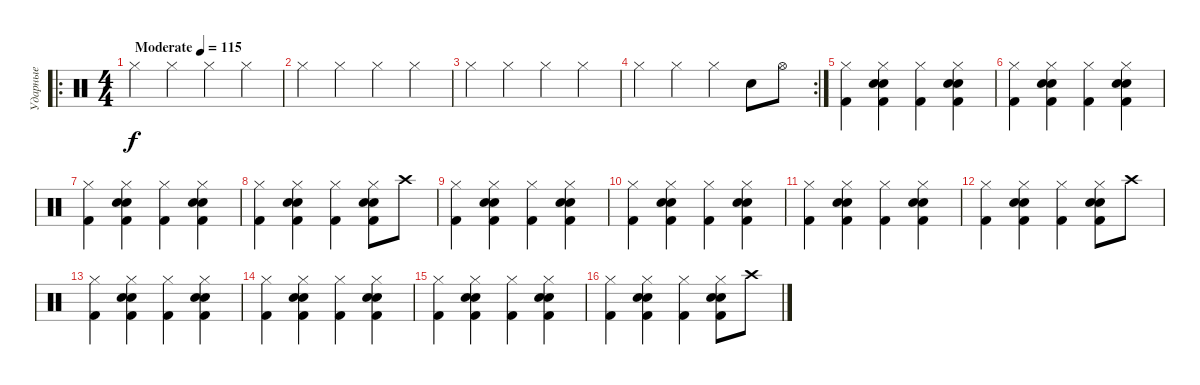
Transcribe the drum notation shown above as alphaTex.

\track ("Ударные" "Ударные") {instrument percussion}
\staff {score}
\articulation defaults
\ro
\ts (4 4)
\tempo (115 "Moderate")
\clef neutral
\ks c "Hi-Hat (closed)".4{dy f} "Hi-Hat (closed)".4 "Hi-Hat (closed)".4 "Hi-Hat (closed)".4
|
"Hi-Hat (closed)".4 "Hi-Hat (closed)".4 "Hi-Hat (closed)".4 "Hi-Hat (closed)".4 |
"Hi-Hat (closed)".4 "Hi-Hat (closed)".4 "Hi-Hat (closed)".4 "Hi-Hat (closed)".4 |
\rc 2 "Hi-Hat (closed)".4 "Hi-Hat (closed)".4 "Hi-Hat (closed)".4 "Snare (hit) 2".8 "Hi-Hat (open)".8
|
("Kick (hit) 2" "Hi-Hat (closed)").4 ("Kick (hit) 2" "Snare (hit) 2" "Electric Snare (hit)" "Hi-Hat (closed)").4 ("Kick (hit) 2" "Hi-Hat (closed)").4 ("Kick (hit) 2" "Snare (hit) 2" "Electric Snare (hit)" "Hi-Hat (closed)").4 |
("Kick (hit) 2" "Hi-Hat (closed)").4 ("Kick (hit) 2" "Snare (hit) 2" "Electric Snare (hit)" "Hi-Hat (closed)").4 ("Kick (hit) 2" "Hi-Hat (closed)").4 ("Kick (hit) 2" "Snare (hit) 2" "Electric Snare (hit)" "Hi-Hat (closed)").4 |
("Kick (hit) 2" "Hi-Hat (closed)").4 ("Kick (hit) 2" "Snare (hit) 2" "Electric Snare (hit)" "Hi-Hat (closed)").4 ("Kick (hit) 2" "Hi-Hat (closed)").4 ("Kick (hit) 2" "Snare (hit) 2" "Electric Snare (hit)" "Hi-Hat (closed)").4 |
("Kick (hit) 2" "Hi-Hat (closed)").4 ("Kick (hit) 2" "Snare (hit) 2" "Electric Snare (hit)" "Hi-Hat (closed)").4 ("Kick (hit) 2" "Hi-Hat (closed)").4 ("Kick (hit) 2" "Snare (hit) 2" "Electric Snare (hit)" "Hi-Hat (closed)").8 "Crash high (hit)".8 |
("Kick (hit) 2" "Hi-Hat (closed)").4 ("Kick (hit) 2" "Snare (hit) 2" "Electric Snare (hit)" "Hi-Hat (closed)").4 ("Kick (hit) 2" "Hi-Hat (closed)").4 ("Kick (hit) 2" "Snare (hit) 2" "Electric Snare (hit)" "Hi-Hat (closed)").4 |
("Kick (hit) 2" "Hi-Hat (closed)").4 ("Kick (hit) 2" "Snare (hit) 2" "Electric Snare (hit)" "Hi-Hat (closed)").4 ("Kick (hit) 2" "Hi-Hat (closed)").4 ("Kick (hit) 2" "Snare (hit) 2" "Electric Snare (hit)" "Hi-Hat (closed)").4 |
("Kick (hit) 2" "Hi-Hat (closed)").4 ("Kick (hit) 2" "Snare (hit) 2" "Electric Snare (hit)" "Hi-Hat (closed)").4 ("Kick (hit) 2" "Hi-Hat (closed)").4 ("Kick (hit) 2" "Snare (hit) 2" "Electric Snare (hit)" "Hi-Hat (closed)").4 |
("Kick (hit) 2" "Hi-Hat (closed)").4 ("Kick (hit) 2" "Snare (hit) 2" "Electric Snare (hit)" "Hi-Hat (closed)").4 ("Kick (hit) 2" "Hi-Hat (closed)").4 ("Kick (hit) 2" "Snare (hit) 2" "Electric Snare (hit)" "Hi-Hat (closed)").8 "Crash high (hit)".8 |
("Kick (hit) 2" "Hi-Hat (closed)").4 ("Kick (hit) 2" "Snare (hit) 2" "Electric Snare (hit)" "Hi-Hat (closed)").4 ("Kick (hit) 2" "Hi-Hat (closed)").4 ("Kick (hit) 2" "Snare (hit) 2" "Electric Snare (hit)" "Hi-Hat (closed)").4 |
("Kick (hit) 2" "Hi-Hat (closed)").4 ("Kick (hit) 2" "Snare (hit) 2" "Electric Snare (hit)" "Hi-Hat (closed)").4 ("Kick (hit) 2" "Hi-Hat (closed)").4 ("Kick (hit) 2" "Snare (hit) 2" "Electric Snare (hit)" "Hi-Hat (closed)").4 |
("Kick (hit) 2" "Hi-Hat (closed)").4 ("Kick (hit) 2" "Snare (hit) 2" "Electric Snare (hit)" "Hi-Hat (closed)").4 ("Kick (hit) 2" "Hi-Hat (closed)").4 ("Kick (hit) 2" "Snare (hit) 2" "Electric Snare (hit)" "Hi-Hat (closed)").4 |
("Kick (hit) 2" "Hi-Hat (closed)").4 ("Kick (hit) 2" "Snare (hit) 2" "Electric Snare (hit)" "Hi-Hat (closed)").4 ("Kick (hit) 2" "Hi-Hat (closed)").4 ("Kick (hit) 2" "Snare (hit) 2" "Electric Snare (hit)" "Hi-Hat (closed)").8 "Crash high (hit)".8
